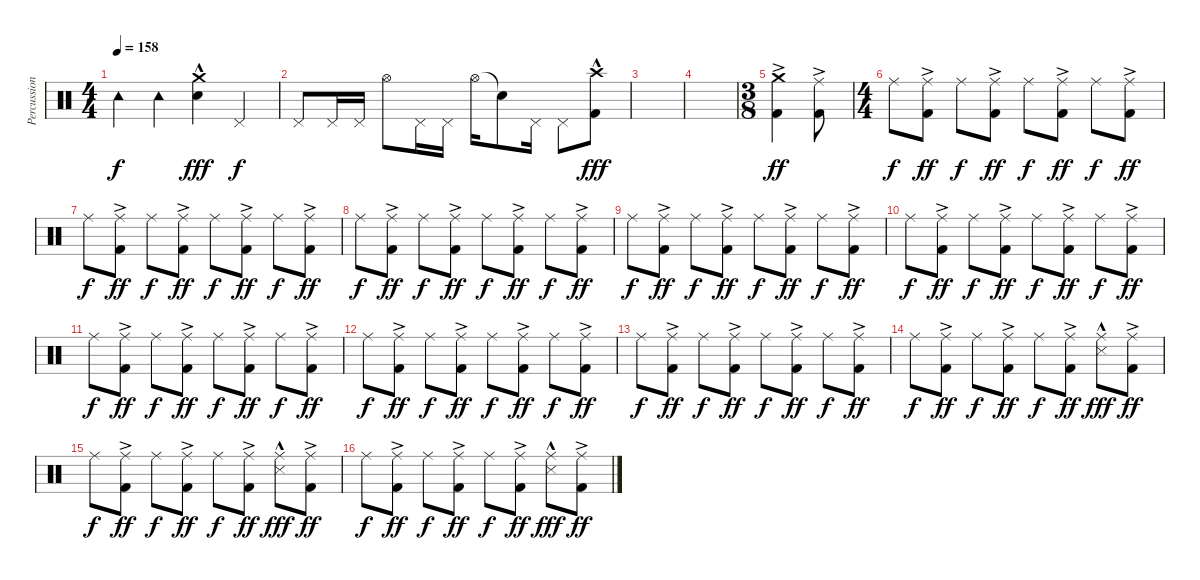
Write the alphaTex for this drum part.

\track ("Percussion" "Percussion") {instrument percussion}
\staff {score}
\articulation defaults
\ts (4 4)
\tempo 158
\clef neutral
\ks c "Tambourine (hit)".4{dy f} "Tambourine (hit)".4
("Crash medium (hit)" "Electric Snare (hit)"{hac}).4{dy fff} "Pedal Hi-Hat (hit)".4{dy f} |
"Pedal Hi-Hat (hit)".8 "Pedal Hi-Hat (hit)".16 "Pedal Hi-Hat (hit)".16 "Hi-Hat (open)".8 "Pedal Hi-Hat (hit)".16 "Pedal Hi-Hat (hit)".16 "Hi-Hat (open)".16 "Snare (hit)"{t}.8 "Pedal Hi-Hat (hit)".16 "Pedal Hi-Hat (hit)".8 ("Crash high (hit)" "Kick (hit) 2"{hac}).8{dy fff} |
|
|
\ts (3 8)
("Crash medium (hit)" "Kick (hit) 2"{ac}).4{dy ff} ("Ride (middle)"{ac} "Kick (hit) 2").8 |
\ts (4 4)
"Ride (middle)".8{dy f} ("Ride (middle)"{ac} "Kick (hit) 2").8{dy ff} "Ride (middle)".8{dy f} ("Ride (middle)"{ac} "Kick (hit) 2").8{dy ff} "Ride (middle)".8{dy f} ("Ride (middle)"{ac} "Kick (hit) 2").8{dy ff} "Ride (middle)".8{dy f} ("Ride (middle)"{ac} "Kick (hit) 2").8{dy ff} |
"Ride (middle)".8{dy f} ("Ride (middle)"{ac} "Kick (hit) 2").8{dy ff} "Ride (middle)".8{dy f} ("Ride (middle)"{ac} "Kick (hit) 2").8{dy ff} "Ride (middle)".8{dy f} ("Ride (middle)"{ac} "Kick (hit) 2").8{dy ff} "Ride (middle)".8{dy f} ("Ride (middle)"{ac} "Kick (hit) 2").8{dy ff} |
"Ride (middle)".8{dy f} ("Ride (middle)"{ac} "Kick (hit) 2").8{dy ff} "Ride (middle)".8{dy f} ("Ride (middle)"{ac} "Kick (hit) 2").8{dy ff} "Ride (middle)".8{dy f} ("Ride (middle)"{ac} "Kick (hit) 2").8{dy ff} "Ride (middle)".8{dy f} ("Ride (middle)"{ac} "Kick (hit) 2").8{dy ff} |
"Ride (middle)".8{dy f} ("Ride (middle)"{ac} "Kick (hit) 2").8{dy ff} "Ride (middle)".8{dy f} ("Ride (middle)"{ac} "Kick (hit) 2").8{dy ff} "Ride (middle)".8{dy f} ("Ride (middle)"{ac} "Kick (hit) 2").8{dy ff} "Ride (middle)".8{dy f} ("Ride (middle)"{ac} "Kick (hit) 2").8{dy ff} |
"Ride (middle)".8{dy f} ("Ride (middle)"{ac} "Kick (hit) 2").8{dy ff} "Ride (middle)".8{dy f} ("Ride (middle)"{ac} "Kick (hit) 2").8{dy ff} "Ride (middle)".8{dy f} ("Ride (middle)"{ac} "Kick (hit) 2").8{dy ff} "Ride (middle)".8{dy f} ("Ride (middle)"{ac} "Kick (hit) 2").8{dy ff} |
"Ride (middle)".8{dy f} ("Ride (middle)"{ac} "Kick (hit) 2").8{dy ff} "Ride (middle)".8{dy f} ("Ride (middle)"{ac} "Kick (hit) 2").8{dy ff} "Ride (middle)".8{dy f} ("Ride (middle)"{ac} "Kick (hit) 2").8{dy ff} "Ride (middle)".8{dy f} ("Ride (middle)"{ac} "Kick (hit) 2").8{dy ff} |
"Ride (middle)".8{dy f} ("Ride (middle)"{ac} "Kick (hit) 2").8{dy ff} "Ride (middle)".8{dy f} ("Ride (middle)"{ac} "Kick (hit) 2").8{dy ff} "Ride (middle)".8{dy f} ("Ride (middle)"{ac} "Kick (hit) 2").8{dy ff} "Ride (middle)".8{dy f} ("Ride (middle)"{ac} "Kick (hit) 2").8{dy ff} |
"Ride (middle)".8{dy f} ("Ride (middle)"{ac} "Kick (hit) 2").8{dy ff} "Ride (middle)".8{dy f} ("Ride (middle)"{ac} "Kick (hit) 2").8{dy ff} "Ride (middle)".8{dy f} ("Ride (middle)"{ac} "Kick (hit) 2").8{dy ff} "Ride (middle)".8{dy f} ("Ride (middle)"{ac} "Kick (hit) 2").8{dy ff} |
"Ride (middle)".8{dy f} ("Ride (middle)"{ac} "Kick (hit) 2").8{dy ff} "Ride (middle)".8{dy f} ("Ride (middle)"{ac} "Kick (hit) 2").8{dy ff} "Ride (middle)".8{dy f} ("Ride (middle)"{ac} "Kick (hit) 2").8{dy ff} ("Ride (middle)" "Snare (side stick) 3"{hac}).8{dy fff} ("Ride (middle)"{ac} "Kick (hit) 2").8{dy ff} |
"Ride (middle)".8{dy f} ("Ride (middle)"{ac} "Kick (hit) 2").8{dy ff} "Ride (middle)".8{dy f} ("Ride (middle)"{ac} "Kick (hit) 2").8{dy ff} "Ride (middle)".8{dy f} ("Ride (middle)"{ac} "Kick (hit) 2").8{dy ff} ("Ride (middle)" "Snare (side stick) 3"{hac}).8{dy fff} ("Ride (middle)"{ac} "Kick (hit) 2").8{dy ff} |
"Ride (middle)".8{dy f} ("Ride (middle)"{ac} "Kick (hit) 2").8{dy ff} "Ride (middle)".8{dy f} ("Ride (middle)"{ac} "Kick (hit) 2").8{dy ff} "Ride (middle)".8{dy f} ("Ride (middle)"{ac} "Kick (hit) 2").8{dy ff} ("Ride (middle)" "Snare (side stick) 3"{hac}).8{dy fff} ("Ride (middle)"{ac} "Kick (hit) 2").8{dy ff}
